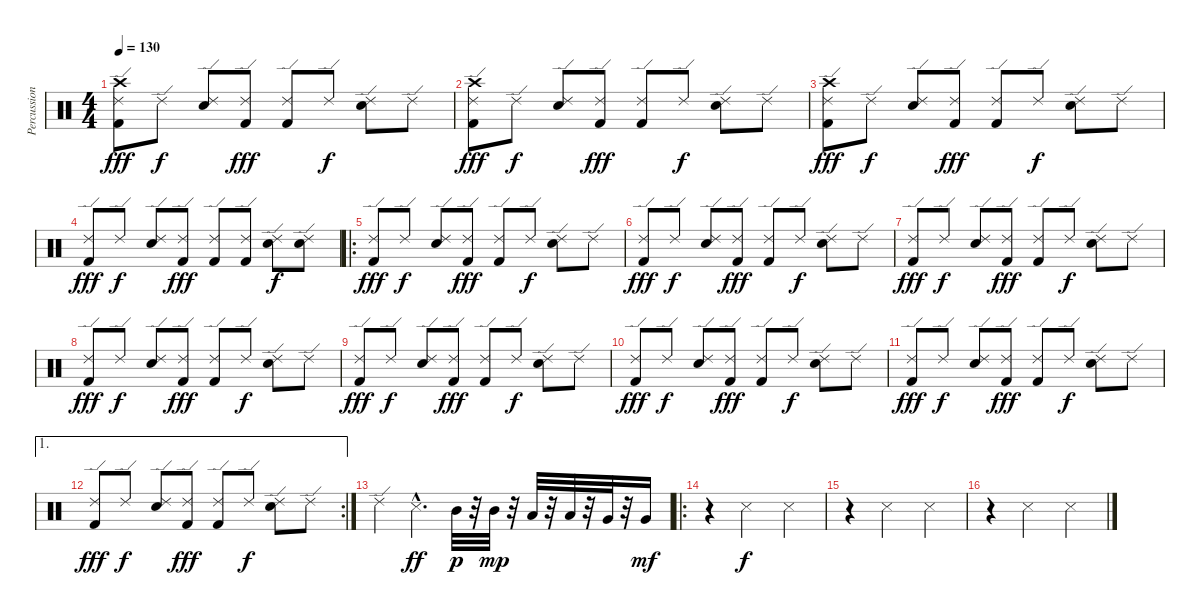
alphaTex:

\track ("Percussion" "Percussion") {instrument percussion}
\staff {score}
\articulation defaults
\ts (4 4)
\tempo 130
\clef neutral
\ks c
("Crash high (hit)" "Ride (edge) 2" "Kick (hit) 2").8{dy fff} "Ride (edge) 2".8{dy f} ("Ride (edge) 2" "Electric Snare (hit)").8 ("Ride (edge) 2" "Kick (hit) 2").8{dy fff} ("Ride (edge) 2" "Kick (hit) 2").8 "Ride (edge) 2".8{dy f} ("Ride (edge) 2" "Electric Snare (hit)").8 "Ride (edge) 2".8 |
("Crash high (hit)" "Ride (edge) 2" "Kick (hit) 2").8{dy fff} "Ride (edge) 2".8{dy f} ("Ride (edge) 2" "Electric Snare (hit)").8 ("Ride (edge) 2" "Kick (hit) 2").8{dy fff} ("Ride (edge) 2" "Kick (hit) 2").8 "Ride (edge) 2".8{dy f} ("Ride (edge) 2" "Electric Snare (hit)").8 "Ride (edge) 2".8 |
("Crash high (hit)" "Ride (edge) 2" "Kick (hit) 2").8{dy fff} "Ride (edge) 2".8{dy f} ("Ride (edge) 2" "Electric Snare (hit)").8 ("Ride (edge) 2" "Kick (hit) 2").8{dy fff} ("Ride (edge) 2" "Kick (hit) 2").8 "Ride (edge) 2".8{dy f} ("Ride (edge) 2" "Electric Snare (hit)").8 "Ride (edge) 2".8 |
("Ride (edge) 2" "Kick (hit) 2").8{dy fff} "Ride (edge) 2".8{dy f} ("Ride (edge) 2" "Electric Snare (hit)").8 ("Ride (edge) 2" "Kick (hit) 2").8{dy fff} ("Ride (edge) 2" "Kick (hit) 2").8 ("Ride (edge) 2" "Kick (hit) 2").8 ("Ride (edge) 2" "Electric Snare (hit)").8{dy f} ("Ride (edge) 2" "Electric Snare (hit)").8 |
\ro
("Ride (edge) 2" "Kick (hit) 2").8{dy fff} "Ride (edge) 2".8{dy f} ("Ride (edge) 2" "Electric Snare (hit)").8 ("Ride (edge) 2" "Kick (hit) 2").8{dy fff} ("Ride (edge) 2" "Kick (hit) 2").8 "Ride (edge) 2".8{dy f} ("Ride (edge) 2" "Electric Snare (hit)").8 "Ride (edge) 2".8 |
("Ride (edge) 2" "Kick (hit) 2").8{dy fff} "Ride (edge) 2".8{dy f} ("Ride (edge) 2" "Electric Snare (hit)").8 ("Ride (edge) 2" "Kick (hit) 2").8{dy fff} ("Ride (edge) 2" "Kick (hit) 2").8 "Ride (edge) 2".8{dy f} ("Ride (edge) 2" "Electric Snare (hit)").8 "Ride (edge) 2".8 |
("Ride (edge) 2" "Kick (hit) 2").8{dy fff} "Ride (edge) 2".8{dy f} ("Ride (edge) 2" "Electric Snare (hit)").8 ("Ride (edge) 2" "Kick (hit) 2").8{dy fff} ("Ride (edge) 2" "Kick (hit) 2").8 "Ride (edge) 2".8{dy f} ("Ride (edge) 2" "Electric Snare (hit)").8 "Ride (edge) 2".8 |
("Ride (edge) 2" "Kick (hit) 2").8{dy fff} "Ride (edge) 2".8{dy f} ("Ride (edge) 2" "Electric Snare (hit)").8 ("Ride (edge) 2" "Kick (hit) 2").8{dy fff} ("Ride (edge) 2" "Kick (hit) 2").8 "Ride (edge) 2".8{dy f} ("Ride (edge) 2" "Electric Snare (hit)").8 "Ride (edge) 2".8 |
("Ride (edge) 2" "Kick (hit) 2").8{dy fff} "Ride (edge) 2".8{dy f} ("Ride (edge) 2" "Electric Snare (hit)").8 ("Ride (edge) 2" "Kick (hit) 2").8{dy fff} ("Ride (edge) 2" "Kick (hit) 2").8 "Ride (edge) 2".8{dy f} ("Ride (edge) 2" "Electric Snare (hit)").8 "Ride (edge) 2".8 |
("Ride (edge) 2" "Kick (hit) 2").8{dy fff} "Ride (edge) 2".8{dy f} ("Ride (edge) 2" "Electric Snare (hit)").8 ("Ride (edge) 2" "Kick (hit) 2").8{dy fff} ("Ride (edge) 2" "Kick (hit) 2").8 "Ride (edge) 2".8{dy f} ("Ride (edge) 2" "Electric Snare (hit)").8 "Ride (edge) 2".8 |
("Ride (edge) 2" "Kick (hit) 2").8{dy fff} "Ride (edge) 2".8{dy f} ("Ride (edge) 2" "Electric Snare (hit)").8 ("Ride (edge) 2" "Kick (hit) 2").8{dy fff} ("Ride (edge) 2" "Kick (hit) 2").8 "Ride (edge) 2".8{dy f} ("Ride (edge) 2" "Electric Snare (hit)").8 "Ride (edge) 2".8 |
\ae 1
\rc 2
("Ride (edge) 2" "Kick (hit) 2").8{dy fff} "Ride (edge) 2".8{dy f} ("Ride (edge) 2" "Electric Snare (hit)").8 ("Ride (edge) 2" "Kick (hit) 2").8{dy fff} ("Ride (edge) 2" "Kick (hit) 2").8 "Ride (edge) 2".8{dy f} ("Ride (edge) 2" "Electric Snare (hit)").8 "Ride (edge) 2".8 |
"Ride (edge) 2".4 "Snare (side stick) 3"{hac}.4{d dy ff} "Mid Tom (hit)".32{dy p} r.32 "Mid Tom (hit)".32{dy mp} r.32 "Low Tom (hit)".32 r.32 "Low Tom (hit)".32 r.32 "Very Low Tom (hit)".32 r.32 "Very Low Tom (hit)".16{dy mf} |
\ro
r.4 "Snare (side stick) 3".2{dy f} "Snare (side stick) 3".4 |
r.4 "Snare (side stick) 3".2 "Snare (side stick) 3".4 |
r.4 "Snare (side stick) 3".2 "Snare (side stick) 3".4
